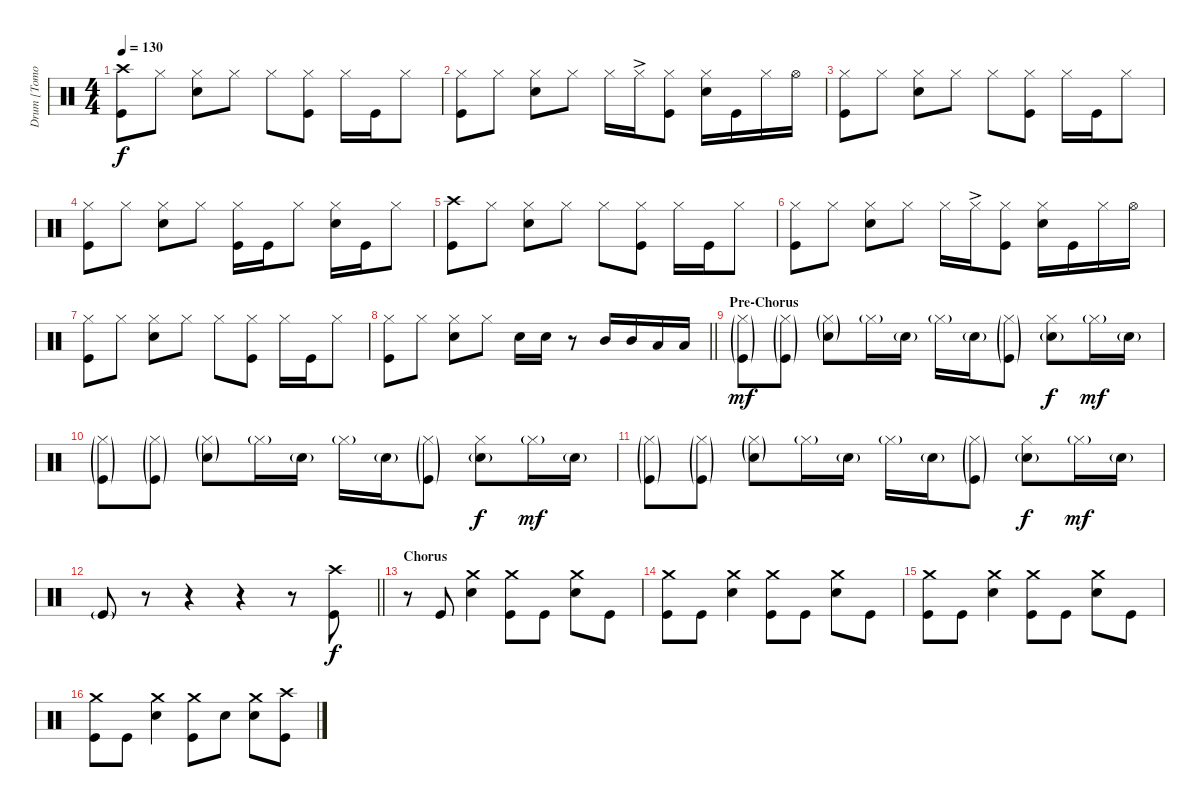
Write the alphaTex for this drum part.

\track ("Drum [Tomoya]" "Drum [Tomo") {instrument percussion}
\staff {score}
\articulation defaults
\ts (4 4)
\tempo 130
\clef neutral
\ks c
("Crash high (hit)" "Kick (hit)").8{dy f} "Hi-Hat (closed)".8 ("Hi-Hat (closed)" "Snare (hit) 2").8 "Hi-Hat (closed)".8 "Hi-Hat (closed)".8 ("Hi-Hat (closed)" "Kick (hit)").8 "Hi-Hat (closed)".16 "Kick (hit)".16 "Hi-Hat (closed)".8 |
("Hi-Hat (closed)" "Kick (hit)").8 "Hi-Hat (closed)".8 ("Hi-Hat (closed)" "Snare (hit) 2").8 "Hi-Hat (closed)".8 "Hi-Hat (closed)".16 "Hi-Hat (closed)"{ac}.16 ("Hi-Hat (closed)" "Kick (hit)").8 ("Snare (hit) 2" "Hi-Hat (closed)").16 "Kick (hit)".16 "Hi-Hat (closed)".16 "Hi-Hat (open)".16 |
("Hi-Hat (closed)" "Kick (hit)").8 "Hi-Hat (closed)".8 ("Hi-Hat (closed)" "Snare (hit) 2").8 "Hi-Hat (closed)".8 "Hi-Hat (closed)".8 ("Hi-Hat (closed)" "Kick (hit)").8 "Hi-Hat (closed)".16 "Kick (hit)".16 "Hi-Hat (closed)".8 |
("Hi-Hat (closed)" "Kick (hit)").8 "Hi-Hat (closed)".8 ("Hi-Hat (closed)" "Snare (hit) 2").8 "Hi-Hat (closed)".8 ("Hi-Hat (closed)" "Kick (hit)").16 "Kick (hit)".16 "Hi-Hat (closed)".8 ("Hi-Hat (closed)" "Snare (hit) 2").16 "Kick (hit)".16 "Hi-Hat (closed)".8 |
("Crash high (hit)" "Kick (hit)").8 "Hi-Hat (closed)".8 ("Hi-Hat (closed)" "Snare (hit) 2").8 "Hi-Hat (closed)".8 "Hi-Hat (closed)".8 ("Hi-Hat (closed)" "Kick (hit)").8 "Hi-Hat (closed)".16 "Kick (hit)".16 "Hi-Hat (closed)".8 |
("Hi-Hat (closed)" "Kick (hit)").8 "Hi-Hat (closed)".8 ("Hi-Hat (closed)" "Snare (hit) 2").8 "Hi-Hat (closed)".8 "Hi-Hat (closed)".16 "Hi-Hat (closed)"{ac}.16 ("Hi-Hat (closed)" "Kick (hit)").8 ("Snare (hit) 2" "Hi-Hat (closed)").16 "Kick (hit)".16 "Hi-Hat (closed)".16 "Hi-Hat (open)".16 |
("Hi-Hat (closed)" "Kick (hit)").8 "Hi-Hat (closed)".8 ("Hi-Hat (closed)" "Snare (hit) 2").8 "Hi-Hat (closed)".8 "Hi-Hat (closed)".8 ("Hi-Hat (closed)" "Kick (hit)").8 "Hi-Hat (closed)".16 "Kick (hit)".16 "Hi-Hat (closed)".8 |
\barLineRight lightlight
("Hi-Hat (closed)" "Kick (hit)").8 "Hi-Hat (closed)".8 ("Hi-Hat (closed)" "Snare (hit) 2").8 "Hi-Hat (closed)".8 "Snare (hit) 2".16 "Snare (hit) 2".16 r.8 "Mid Tom (hit)".16 "Mid Tom (hit)".16 "Low Tom (hit)".16 "Low Tom (hit)".16 |
\section ("" "Pre-Chorus")
("Hi-Hat (closed)"{g} "Kick (hit)"{g}).8{dy mf} ("Hi-Hat (closed)"{g} "Kick (hit)"{g}).8 ("Hi-Hat (closed)"{g} "Snare (hit) 2"{g}).8 "Hi-Hat (closed)"{g}.16 "Snare (hit) 2"{g}.16 "Hi-Hat (closed)"{g}.16 "Snare (hit) 2"{g}.16 ("Hi-Hat (closed)"{g} "Kick (hit)"{g}).8 ("Hi-Hat (closed)" "Snare (hit) 2"{g}).8{dy f} "Hi-Hat (closed)"{g}.16{dy mf} "Snare (hit) 2"{g}.16 |
("Hi-Hat (closed)"{g} "Kick (hit)"{g}).8 ("Hi-Hat (closed)"{g} "Kick (hit)"{g}).8 ("Hi-Hat (closed)"{g} "Snare (hit) 2"{g}).8 "Hi-Hat (closed)"{g}.16 "Snare (hit) 2"{g}.16 "Hi-Hat (closed)"{g}.16 "Snare (hit) 2"{g}.16 ("Hi-Hat (closed)"{g} "Kick (hit)"{g}).8 ("Hi-Hat (closed)" "Snare (hit) 2"{g}).8{dy f} "Hi-Hat (closed)"{g}.16{dy mf} "Snare (hit) 2"{g}.16 |
("Hi-Hat (closed)"{g} "Kick (hit)"{g}).8 ("Hi-Hat (closed)"{g} "Kick (hit)"{g}).8 ("Hi-Hat (closed)"{g} "Snare (hit) 2"{g}).8 "Hi-Hat (closed)"{g}.16 "Snare (hit) 2"{g}.16 "Hi-Hat (closed)"{g}.16 "Snare (hit) 2"{g}.16 ("Hi-Hat (closed)"{g} "Kick (hit)"{g}).8 ("Hi-Hat (closed)" "Snare (hit) 2"{g}).8{dy f} "Hi-Hat (closed)"{g}.16{dy mf} "Snare (hit) 2"{g}.16 |
\barLineRight lightlight "Kick (hit)"{g}.8
r.8 r.4 r.4 r.8 ("Crash high (hit)" "Kick (hit)").8{dy f} |
\section ("" "Chorus")
r.8 "Kick (hit)".8 ("Crash medium (hit)" "Snare (hit) 2").4 ("Crash medium (hit)" "Kick (hit)").8 "Kick (hit)".8 ("Snare (hit) 2" "Crash medium (hit)").8 "Kick (hit)".8 |
("Crash medium (hit)" "Kick (hit)").8 "Kick (hit)".8 ("Crash medium (hit)" "Snare (hit) 2").4 ("Crash medium (hit)" "Kick (hit)").8 "Kick (hit)".8 ("Snare (hit) 2" "Crash medium (hit)").8 "Kick (hit)".8 |
("Crash medium (hit)" "Kick (hit)").8 "Kick (hit)".8 ("Crash medium (hit)" "Snare (hit) 2").4 ("Crash medium (hit)" "Kick (hit)").8 "Kick (hit)".8 ("Snare (hit) 2" "Crash medium (hit)").8 "Kick (hit)".8 |
("Crash medium (hit)" "Kick (hit)").8 "Kick (hit)".8 ("Crash medium (hit)" "Snare (hit) 2").4 ("Crash medium (hit)" "Kick (hit)").8 "Snare (hit) 2".8 ("Snare (hit) 2" "Crash medium (hit)").8 ("Crash high (hit)" "Kick (hit)").8
